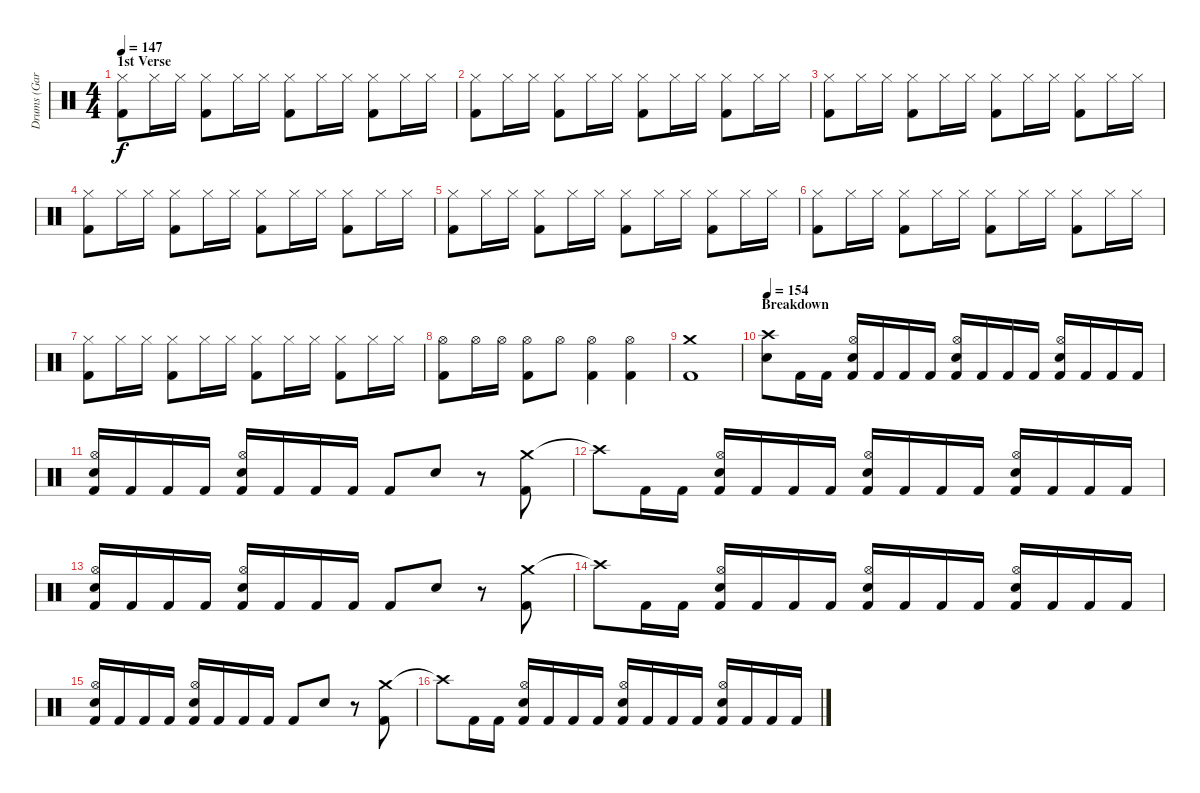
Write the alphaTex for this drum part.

\track ("Drums (Gar Samuelson)" "Drums (Gar") {instrument percussion}
\staff {score}
\articulation defaults
\ts (4 4)
\section ("" "1st Verse")
\tempo 147
\clef neutral
\ks c
("Hi-Hat (closed)" "Kick (hit) 2").8{dy f} "Hi-Hat (closed)".16 "Hi-Hat (closed)".16 ("Hi-Hat (closed)" "Kick (hit) 2").8 "Hi-Hat (closed)".16 "Hi-Hat (closed)".16 ("Hi-Hat (closed)" "Kick (hit) 2").8 "Hi-Hat (closed)".16 "Hi-Hat (closed)".16 ("Hi-Hat (closed)" "Kick (hit) 2").8 "Hi-Hat (closed)".16 "Hi-Hat (closed)".16 |
("Hi-Hat (closed)" "Kick (hit) 2").8 "Hi-Hat (closed)".16 "Hi-Hat (closed)".16 ("Hi-Hat (closed)" "Kick (hit) 2").8 "Hi-Hat (closed)".16 "Hi-Hat (closed)".16 ("Hi-Hat (closed)" "Kick (hit) 2").8 "Hi-Hat (closed)".16 "Hi-Hat (closed)".16 ("Hi-Hat (closed)" "Kick (hit) 2").8 "Hi-Hat (closed)".16 "Hi-Hat (closed)".16 |
("Hi-Hat (closed)" "Kick (hit) 2").8 "Hi-Hat (closed)".16 "Hi-Hat (closed)".16 ("Hi-Hat (closed)" "Kick (hit) 2").8 "Hi-Hat (closed)".16 "Hi-Hat (closed)".16 ("Hi-Hat (closed)" "Kick (hit) 2").8 "Hi-Hat (closed)".16 "Hi-Hat (closed)".16 ("Hi-Hat (closed)" "Kick (hit) 2").8 "Hi-Hat (closed)".16 "Hi-Hat (closed)".16 |
("Hi-Hat (closed)" "Kick (hit) 2").8 "Hi-Hat (closed)".16 "Hi-Hat (closed)".16 ("Hi-Hat (closed)" "Kick (hit) 2").8 "Hi-Hat (closed)".16 "Hi-Hat (closed)".16 ("Hi-Hat (closed)" "Kick (hit) 2").8 "Hi-Hat (closed)".16 "Hi-Hat (closed)".16 ("Hi-Hat (closed)" "Kick (hit) 2").8 "Hi-Hat (closed)".16 "Hi-Hat (closed)".16 |
("Hi-Hat (closed)" "Kick (hit) 2").8 "Hi-Hat (closed)".16 "Hi-Hat (closed)".16 ("Hi-Hat (closed)" "Kick (hit) 2").8 "Hi-Hat (closed)".16 "Hi-Hat (closed)".16 ("Hi-Hat (closed)" "Kick (hit) 2").8 "Hi-Hat (closed)".16 "Hi-Hat (closed)".16 ("Hi-Hat (closed)" "Kick (hit) 2").8 "Hi-Hat (closed)".16 "Hi-Hat (closed)".16 |
("Hi-Hat (closed)" "Kick (hit) 2").8 "Hi-Hat (closed)".16 "Hi-Hat (closed)".16 ("Hi-Hat (closed)" "Kick (hit) 2").8 "Hi-Hat (closed)".16 "Hi-Hat (closed)".16 ("Hi-Hat (closed)" "Kick (hit) 2").8 "Hi-Hat (closed)".16 "Hi-Hat (closed)".16 ("Hi-Hat (closed)" "Kick (hit) 2").8 "Hi-Hat (closed)".16 "Hi-Hat (closed)".16 |
("Hi-Hat (closed)" "Kick (hit) 2").8 "Hi-Hat (closed)".16 "Hi-Hat (closed)".16 ("Hi-Hat (closed)" "Kick (hit) 2").8 "Hi-Hat (closed)".16 "Hi-Hat (closed)".16 ("Hi-Hat (closed)" "Kick (hit) 2").8 "Hi-Hat (closed)".16 "Hi-Hat (closed)".16 ("Hi-Hat (closed)" "Kick (hit) 2").8 "Hi-Hat (closed)".16 "Hi-Hat (closed)".16 |
("Hi-Hat (open)" "Kick (hit) 2").8 "Hi-Hat (open)".16 "Hi-Hat (open)".16 ("Hi-Hat (open)" "Kick (hit) 2").8 "Hi-Hat (open)".8 ("Hi-Hat (open)" "Kick (hit) 2").4 ("Hi-Hat (open)" "Kick (hit) 2").4 |
("Crash medium (hit)" "Kick (hit) 2").1 |
\section ("" "Breakdown")
\tempo 154
("Crash high (hit)" "Snare (hit) 2").8 "Kick (hit) 2".16 "Kick (hit) 2".16 ("Hi-Hat (open)" "Snare (hit) 2" "Kick (hit) 2").16 "Kick (hit) 2".16 "Kick (hit) 2".16 "Kick (hit) 2".16 ("Hi-Hat (open)" "Snare (hit) 2" "Kick (hit) 2").16 "Kick (hit) 2".16 "Kick (hit) 2".16 "Kick (hit) 2".16 ("Hi-Hat (open)" "Snare (hit) 2" "Kick (hit) 2").16 "Kick (hit) 2".16 "Kick (hit) 2".16 "Kick (hit) 2".16 |
("Hi-Hat (open)" "Snare (hit) 2" "Kick (hit) 2").16 "Kick (hit) 2".16 "Kick (hit) 2".16 "Kick (hit) 2".16 ("Hi-Hat (open)" "Snare (hit) 2" "Kick (hit) 2").16 "Kick (hit) 2".16 "Kick (hit) 2".16 "Kick (hit) 2".16 "Kick (hit) 2".8 "Snare (hit) 2".8 r.8 ("Crash medium (hit)" "Kick (hit) 2").8 |
"Crash high (hit)"{t}.8 "Kick (hit) 2".16 "Kick (hit) 2".16 ("Hi-Hat (open)" "Snare (hit) 2" "Kick (hit) 2").16 "Kick (hit) 2".16 "Kick (hit) 2".16 "Kick (hit) 2".16 ("Hi-Hat (open)" "Snare (hit) 2" "Kick (hit) 2").16 "Kick (hit) 2".16 "Kick (hit) 2".16 "Kick (hit) 2".16 ("Hi-Hat (open)" "Snare (hit) 2" "Kick (hit) 2").16 "Kick (hit) 2".16 "Kick (hit) 2".16 "Kick (hit) 2".16 |
("Hi-Hat (open)" "Snare (hit) 2" "Kick (hit) 2").16 "Kick (hit) 2".16 "Kick (hit) 2".16 "Kick (hit) 2".16 ("Hi-Hat (open)" "Snare (hit) 2" "Kick (hit) 2").16 "Kick (hit) 2".16 "Kick (hit) 2".16 "Kick (hit) 2".16 "Kick (hit) 2".8 "Snare (hit) 2".8 r.8 ("Crash medium (hit)" "Kick (hit) 2").8 |
"Crash high (hit)"{t}.8 "Kick (hit) 2".16 "Kick (hit) 2".16 ("Hi-Hat (open)" "Snare (hit) 2" "Kick (hit) 2").16 "Kick (hit) 2".16 "Kick (hit) 2".16 "Kick (hit) 2".16 ("Hi-Hat (open)" "Snare (hit) 2" "Kick (hit) 2").16 "Kick (hit) 2".16 "Kick (hit) 2".16 "Kick (hit) 2".16 ("Hi-Hat (open)" "Snare (hit) 2" "Kick (hit) 2").16 "Kick (hit) 2".16 "Kick (hit) 2".16 "Kick (hit) 2".16 |
("Hi-Hat (open)" "Snare (hit) 2" "Kick (hit) 2").16 "Kick (hit) 2".16 "Kick (hit) 2".16 "Kick (hit) 2".16 ("Hi-Hat (open)" "Snare (hit) 2" "Kick (hit) 2").16 "Kick (hit) 2".16 "Kick (hit) 2".16 "Kick (hit) 2".16 "Kick (hit) 2".8 "Snare (hit) 2".8 r.8 ("Crash medium (hit)" "Kick (hit) 2").8 |
"Crash high (hit)"{t}.8 "Kick (hit) 2".16 "Kick (hit) 2".16 ("Hi-Hat (open)" "Snare (hit) 2" "Kick (hit) 2").16 "Kick (hit) 2".16 "Kick (hit) 2".16 "Kick (hit) 2".16 ("Hi-Hat (open)" "Snare (hit) 2" "Kick (hit) 2").16 "Kick (hit) 2".16 "Kick (hit) 2".16 "Kick (hit) 2".16 ("Hi-Hat (open)" "Snare (hit) 2" "Kick (hit) 2").16 "Kick (hit) 2".16 "Kick (hit) 2".16 "Kick (hit) 2".16
